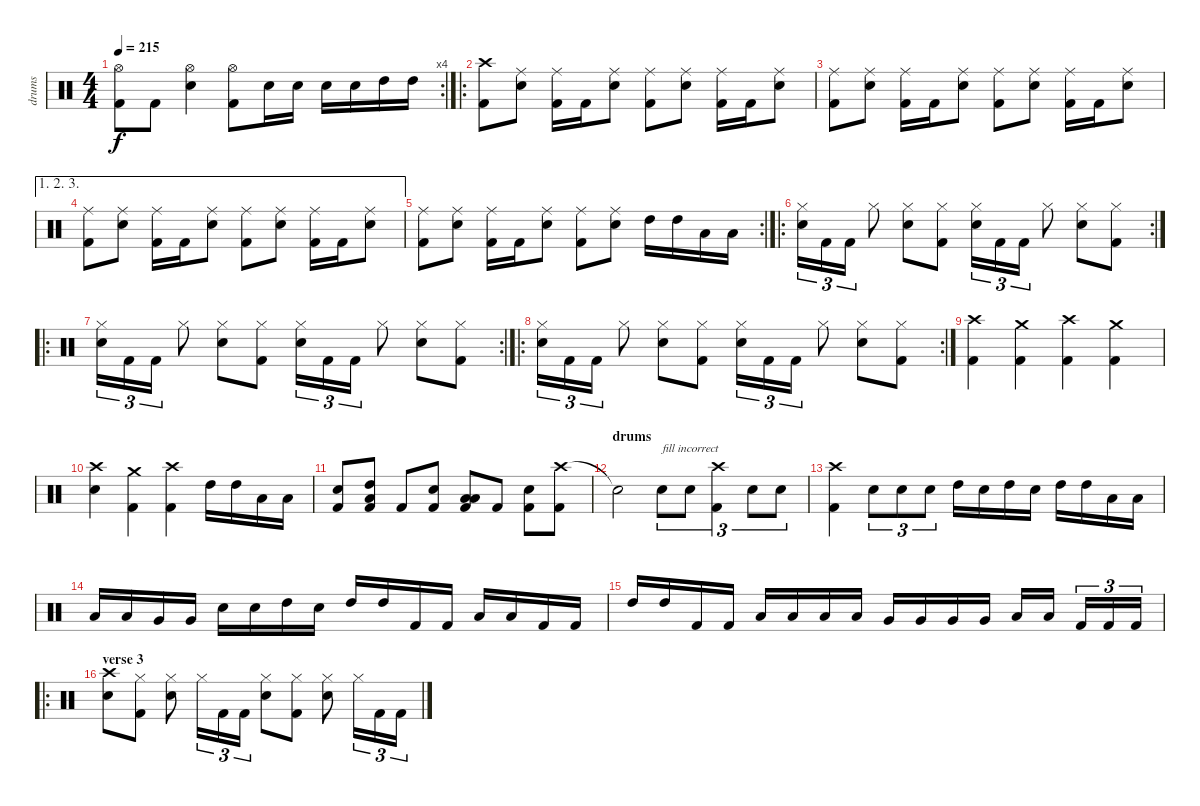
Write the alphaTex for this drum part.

\track ("drums" "drums") {instrument percussion}
\staff {score}
\articulation defaults
\rc 4
\ts (4 4)
\tempo 215
\clef neutral
\ks c
("Hi-Hat (open)" "Kick (hit) 2").8{dy f} "Kick (hit) 2".8 ("Hi-Hat (open)" "Electric Snare (hit)").4 ("Hi-Hat (open)" "Kick (hit) 2").8 "Electric Snare (hit)".16 "Electric Snare (hit)".16 "Electric Snare (hit)".16 "Electric Snare (hit)".16 "High Tom (hit)".16 "High Tom (hit)".16 |
\ro
("Crash high (hit)" "Kick (hit) 2").8 ("Ride (middle)" "Electric Snare (hit)").8 ("Ride (middle)" "Kick (hit) 2").16 "Kick (hit) 2".16 ("Ride (middle)" "Electric Snare (hit)").8 ("Ride (middle)" "Kick (hit) 2").8 ("Ride (middle)" "Electric Snare (hit)").8 ("Ride (middle)" "Kick (hit) 2").16 "Kick (hit) 2".16 ("Ride (middle)" "Electric Snare (hit)").8 |
("Ride (middle)" "Kick (hit) 2").8 ("Ride (middle)" "Electric Snare (hit)").8 ("Ride (middle)" "Kick (hit) 2").16 "Kick (hit) 2".16 ("Ride (middle)" "Electric Snare (hit)").8 ("Ride (middle)" "Kick (hit) 2").8 ("Ride (middle)" "Electric Snare (hit)").8 ("Ride (middle)" "Kick (hit) 2").16 "Kick (hit) 2".16 ("Ride (middle)" "Electric Snare (hit)").8 |
\ae (1 2 3)
("Ride (middle)" "Kick (hit) 2").8 ("Ride (middle)" "Electric Snare (hit)").8 ("Ride (middle)" "Kick (hit) 2").16 "Kick (hit) 2".16 ("Ride (middle)" "Electric Snare (hit)").8 ("Ride (middle)" "Kick (hit) 2").8 ("Ride (middle)" "Electric Snare (hit)").8 ("Ride (middle)" "Kick (hit) 2").16 "Kick (hit) 2".16 ("Ride (middle)" "Electric Snare (hit)").8 |
\rc 2
("Ride (middle)" "Kick (hit) 2").8 ("Ride (middle)" "Electric Snare (hit)").8 ("Ride (middle)" "Kick (hit) 2").16 "Kick (hit) 2".16 ("Ride (middle)" "Electric Snare (hit)").8 ("Ride (middle)" "Kick (hit) 2").8 ("Ride (middle)" "Electric Snare (hit)").8 "High Tom (hit)".16 "High Tom (hit)".16 "Low Tom (hit)".16 "Low Tom (hit)".16 |
\ro
\rc 2
("Hi-Hat (closed)" "Electric Snare (hit)").16{tu (3 2)} "Kick (hit) 2".16{tu (3 2)} "Kick (hit) 2".16{tu (3 2)} "Hi-Hat (closed)".8 ("Hi-Hat (closed)" "Electric Snare (hit)").8 ("Hi-Hat (closed)" "Kick (hit) 2").8 ("Hi-Hat (closed)" "Electric Snare (hit)").16{tu (3 2)} "Kick (hit) 2".16{tu (3 2)} "Kick (hit) 2".16{tu (3 2)} "Hi-Hat (closed)".8 ("Hi-Hat (closed)" "Electric Snare (hit)").8 ("Hi-Hat (closed)" "Kick (hit) 2").8 |
\ro
\rc 2
("Hi-Hat (closed)" "Electric Snare (hit)").16{tu (3 2)} "Kick (hit) 2".16{tu (3 2)} "Kick (hit) 2".16{tu (3 2)} "Hi-Hat (closed)".8 ("Hi-Hat (closed)" "Electric Snare (hit)").8 ("Hi-Hat (closed)" "Kick (hit) 2").8 ("Hi-Hat (closed)" "Electric Snare (hit)").16{tu (3 2)} "Kick (hit) 2".16{tu (3 2)} "Kick (hit) 2".16{tu (3 2)} "Hi-Hat (closed)".8 ("Hi-Hat (closed)" "Electric Snare (hit)").8 ("Hi-Hat (closed)" "Kick (hit) 2").8 |
\ro
\rc 2
("Hi-Hat (closed)" "Electric Snare (hit)").16{tu (3 2)} "Kick (hit) 2".16{tu (3 2)} "Kick (hit) 2".16{tu (3 2)} "Hi-Hat (closed)".8 ("Hi-Hat (closed)" "Electric Snare (hit)").8 ("Hi-Hat (closed)" "Kick (hit) 2").8 ("Hi-Hat (closed)" "Electric Snare (hit)").16{tu (3 2)} "Kick (hit) 2".16{tu (3 2)} "Kick (hit) 2".16{tu (3 2)} "Hi-Hat (closed)".8 ("Hi-Hat (closed)" "Electric Snare (hit)").8 ("Hi-Hat (closed)" "Kick (hit) 2").8 |
("Crash high (hit)" "Kick (hit) 2").4 ("Crash medium (hit)" "Kick (hit) 2").4 ("Crash high (hit)" "Kick (hit) 2").4 ("Crash medium (hit)" "Kick (hit) 2").4 |
("Crash high (hit)" "Electric Snare (hit)").4 ("Crash medium (hit)" "Kick (hit) 2").4 ("Crash high (hit)" "Kick (hit) 2").4 "High Tom (hit)".16 "High Tom (hit)".16 "Low Tom (hit)".16 "Low Tom (hit)".16 |
("Electric Snare (hit)" "Kick (hit) 2").8 ("High Tom (hit)" "Low Floor Tom (hit)" "Kick (hit) 2").8 "Kick (hit) 2".8 ("Electric Snare (hit)" "Kick (hit) 2").8 ("Low Tom (hit)" "Low Floor Tom (hit)" "Kick (hit) 2").8 "Kick (hit) 2".8 ("Electric Snare (hit)" "Kick (hit) 2").8 ("Crash high (hit)" "Kick (hit) 2").8 |
\section ("" "drums")
"Snare (hit)"{t}.2 "Electric Snare (hit)".8{tu (3 2) txt "fill incorrect"} "Electric Snare (hit)".8{tu (3 2)} ("Crash high (hit)" "Kick (hit) 2").4{tu (3 2)} "Electric Snare (hit)".8{tu (3 2)} "Electric Snare (hit)".8{tu (3 2)} |
("Crash high (hit)" "Kick (hit) 2").4 "Electric Snare (hit)".8{tu (3 2)} "Electric Snare (hit)".8{tu (3 2)} "Electric Snare (hit)".8{tu (3 2)} "High Tom (hit)".16 "Electric Snare (hit)".16 "High Tom (hit)".16 "Electric Snare (hit)".16 "High Tom (hit)".16 "High Tom (hit)".16 "Low Tom (hit)".16 "Low Tom (hit)".16 |
"Low Tom (hit)".16 "Low Tom (hit)".16 "Very Low Tom (hit)".16 "Very Low Tom (hit)".16 "Electric Snare (hit)".16 "Electric Snare (hit)".16 "High Tom (hit)".16 "Electric Snare (hit)".16 "High Tom (hit)".16 "High Tom (hit)".16 "Kick (hit) 2".16 "Kick (hit) 2".16 "Low Tom (hit)".16 "Low Tom (hit)".16 "Kick (hit) 2".16 "Kick (hit) 2".16 |
"High Tom (hit)".16 "High Tom (hit)".16 "Kick (hit) 2".16 "Kick (hit) 2".16 "Low Tom (hit)".16 "Low Tom (hit)".16 "Low Tom (hit)".16 "Low Tom (hit)".16 "Very Low Tom (hit)".16 "Very Low Tom (hit)".16 "Very Low Tom (hit)".16 "Very Low Tom (hit)".16 "Low Floor Tom (hit)".16 "Low Floor Tom (hit)".16 "Kick (hit) 2".16{tu (3 2)} "Kick (hit) 2".16{tu (3 2)} "Kick (hit) 2".16{tu (3 2)} |
\ro
\section ("" "verse 3")
("Crash high (hit)" "Electric Snare (hit)").8 ("Hi-Hat (closed)" "Kick (hit) 2").8 ("Hi-Hat (closed)" "Electric Snare (hit)").8 "Hi-Hat (closed)".16{tu (3 2)} "Kick (hit) 2".16{tu (3 2)} "Kick (hit) 2".16{tu (3 2)} ("Hi-Hat (closed)" "Electric Snare (hit)").8 ("Hi-Hat (closed)" "Kick (hit) 2").8 ("Hi-Hat (closed)" "Electric Snare (hit)").8 "Hi-Hat (closed)".16{tu (3 2)} "Kick (hit) 2".16{tu (3 2)} "Kick (hit) 2".16{tu (3 2)}
